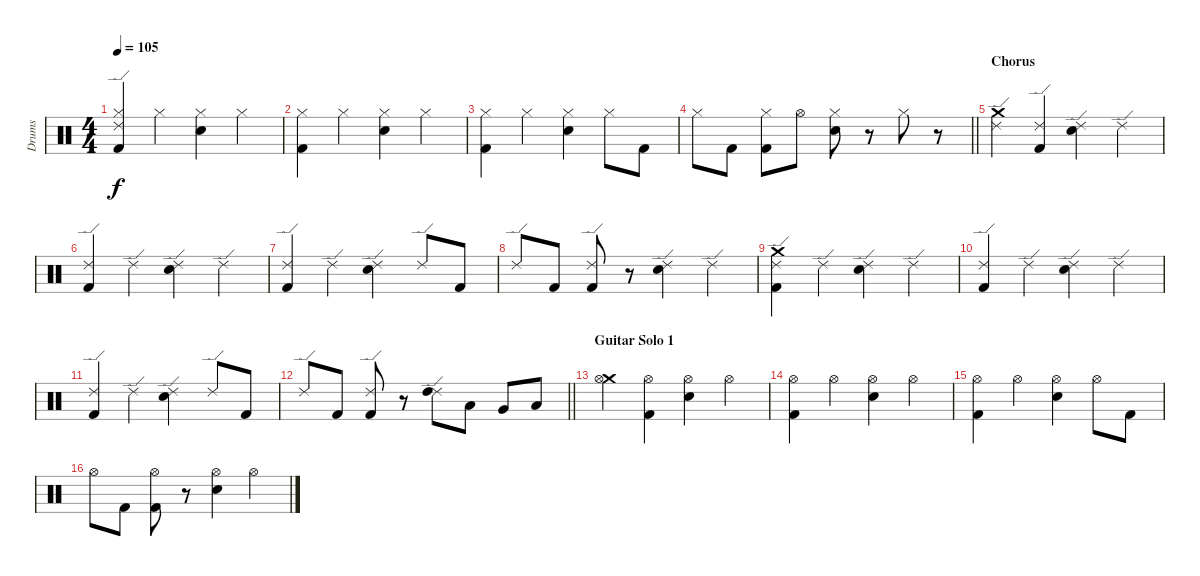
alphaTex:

\track ("Drums" "Drums") {instrument percussion}
\staff {score}
\articulation defaults
\ts (4 4)
\tempo 105
\clef neutral
\ks c
("Ride (edge) 2" "Hi-Hat (closed)" "Kick (hit) 2").4{dy f} "Hi-Hat (closed)".4 ("Hi-Hat (closed)" "Electric Snare (hit)").4 "Hi-Hat (closed)".4 |
("Hi-Hat (closed)" "Kick (hit) 2").4 "Hi-Hat (closed)".4 ("Hi-Hat (closed)" "Electric Snare (hit)").4 "Hi-Hat (closed)".4 |
("Hi-Hat (closed)" "Kick (hit) 2").4 "Hi-Hat (closed)".4 ("Hi-Hat (closed)" "Electric Snare (hit)").4 "Hi-Hat (closed)".8 "Kick (hit) 2".8 |
\barLineRight lightlight "Hi-Hat (closed)".8 "Kick (hit) 2".8
("Hi-Hat (closed)" "Kick (hit) 2").8 "Hi-Hat (open)".8 ("Hi-Hat (closed)" "Electric Snare (hit)").8 r.8 "Hi-Hat (closed)".8 r.8 |
\section ("" "Chorus")
("Crash medium (hit)" "Ride (edge) 2").4 ("Ride (edge) 2" "Kick (hit) 2").4 ("Ride (edge) 2" "Electric Snare (hit)").4 "Ride (edge) 2".4 |
("Ride (edge) 2" "Kick (hit) 2").4 "Ride (edge) 2".4 ("Ride (edge) 2" "Electric Snare (hit)").4 "Ride (edge) 2".4 |
("Ride (edge) 2" "Kick (hit) 2").4 "Ride (edge) 2".4 ("Ride (edge) 2" "Electric Snare (hit)").4 "Ride (edge) 2".8 "Kick (hit) 2".8 |
"Ride (edge) 2".8 "Kick (hit) 2".8 ("Ride (edge) 2" "Kick (hit) 2").8 r.8 ("Ride (edge) 2" "Electric Snare (hit)").4 "Ride (edge) 2".4 |
("Crash medium (hit)" "Ride (edge) 2" "Kick (hit) 2").4 "Ride (edge) 2".4 ("Ride (edge) 2" "Electric Snare (hit)").4 "Ride (edge) 2".4 |
("Ride (edge) 2" "Kick (hit) 2").4 "Ride (edge) 2".4 ("Ride (edge) 2" "Electric Snare (hit)").4 "Ride (edge) 2".4 |
("Ride (edge) 2" "Kick (hit) 2").4 "Ride (edge) 2".4 ("Ride (edge) 2" "Electric Snare (hit)").4 "Ride (edge) 2".8 "Kick (hit) 2".8 |
\barLineRight lightlight "Ride (edge) 2".8 "Kick (hit) 2".8
("Ride (edge) 2" "Kick (hit) 2").8 r.8 ("Ride (edge) 2" "High Tom (hit)").8 "Low Tom (hit)".8 "Very Low Tom (hit)".8 "Low Floor Tom (hit)".8 |
\section ("" "Guitar Solo 1")
("Crash medium (hit)" "Hi-Hat (open)").4 ("Hi-Hat (open)" "Kick (hit) 2").4 ("Hi-Hat (open)" "Electric Snare (hit)").4 "Hi-Hat (open)".4 |
("Hi-Hat (open)" "Kick (hit) 2").4 "Hi-Hat (open)".4 ("Hi-Hat (open)" "Electric Snare (hit)").4 "Hi-Hat (open)".4 |
("Hi-Hat (open)" "Kick (hit) 2").4 "Hi-Hat (open)".4 ("Hi-Hat (open)" "Electric Snare (hit)").4 "Hi-Hat (open)".8 "Kick (hit) 2".8 |
"Hi-Hat (open)".8 "Kick (hit) 2".8 ("Hi-Hat (open)" "Kick (hit) 2").8 r.8 ("Hi-Hat (open)" "Electric Snare (hit)").4 "Hi-Hat (open)".4
